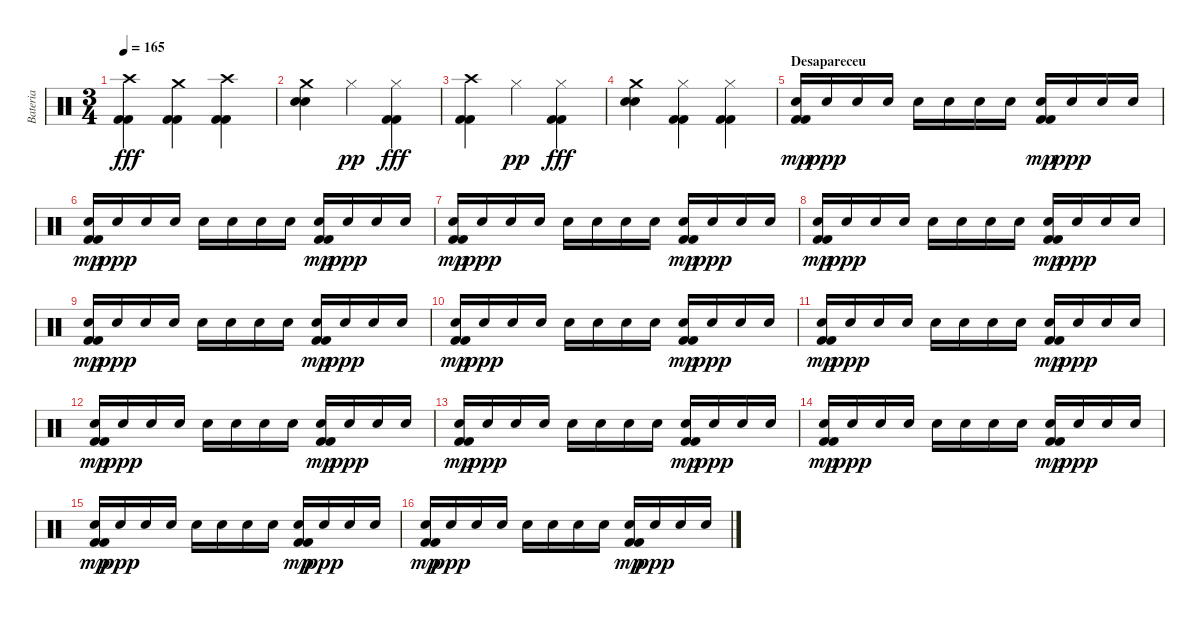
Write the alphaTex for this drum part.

\track ("Bateria" "Bateria") {instrument percussion}
\staff {score}
\articulation defaults
\ts (3 4)
\tempo 165
\clef neutral
\ks c
("Crash high (hit)" "Kick (hit) 2" "Kick (hit) 2").4{dy fff} ("Crash medium (hit)" "Kick (hit) 2" "Kick (hit) 2").4 ("Crash high (hit)" "Kick (hit) 2" "Kick (hit) 2").4 |
("Crash medium (hit)" "Snare (hit) 2" "Electric Snare (hit)").4 "Hi-Hat (closed)".4{dy pp} ("Hi-Hat (closed)" "Kick (hit) 2" "Kick (hit) 2").4{dy fff} |
("Crash high (hit)" "Kick (hit) 2" "Kick (hit) 2").4 "Hi-Hat (closed)".4{dy pp} ("Hi-Hat (closed)" "Kick (hit) 2" "Kick (hit) 2").4{dy fff} |
("Crash medium (hit)" "Electric Snare (hit)" "Snare (hit) 2").4 ("Hi-Hat (closed)" "Kick (hit) 2" "Kick (hit) 2").4 ("Hi-Hat (closed)" "Kick (hit) 2" "Kick (hit) 2").4 |
\section ("" "Desapareceu")
("Electric Snare (hit)" "Kick (hit) 2" "Kick (hit) 2").16{dy mp volume 9} "Electric Snare (hit)".16{dy ppp} "Electric Snare (hit)".16 "Electric Snare (hit)".16 "Electric Snare (hit)".16 "Electric Snare (hit)".16 "Electric Snare (hit)".16 "Electric Snare (hit)".16 ("Electric Snare (hit)" "Kick (hit) 2" "Kick (hit) 2").16{dy mp} "Electric Snare (hit)".16{dy ppp} "Electric Snare (hit)".16 "Electric Snare (hit)".16 |
("Electric Snare (hit)" "Kick (hit) 2" "Kick (hit) 2").16{dy mp} "Electric Snare (hit)".16{dy ppp} "Electric Snare (hit)".16 "Electric Snare (hit)".16 "Electric Snare (hit)".16 "Electric Snare (hit)".16 "Electric Snare (hit)".16 "Electric Snare (hit)".16 ("Electric Snare (hit)" "Kick (hit) 2" "Kick (hit) 2").16{dy mp} "Electric Snare (hit)".16{dy ppp} "Electric Snare (hit)".16 "Electric Snare (hit)".16 |
("Electric Snare (hit)" "Kick (hit) 2" "Kick (hit) 2").16{dy mp} "Electric Snare (hit)".16{dy ppp} "Electric Snare (hit)".16 "Electric Snare (hit)".16 "Electric Snare (hit)".16 "Electric Snare (hit)".16 "Electric Snare (hit)".16 "Electric Snare (hit)".16 ("Electric Snare (hit)" "Kick (hit) 2" "Kick (hit) 2").16{dy mp} "Electric Snare (hit)".16{dy ppp} "Electric Snare (hit)".16 "Electric Snare (hit)".16 |
("Electric Snare (hit)" "Kick (hit) 2" "Kick (hit) 2").16{dy mp} "Electric Snare (hit)".16{dy ppp} "Electric Snare (hit)".16 "Electric Snare (hit)".16 "Electric Snare (hit)".16 "Electric Snare (hit)".16 "Electric Snare (hit)".16 "Electric Snare (hit)".16 ("Electric Snare (hit)" "Kick (hit) 2" "Kick (hit) 2").16{dy mp} "Electric Snare (hit)".16{dy ppp} "Electric Snare (hit)".16 "Electric Snare (hit)".16 |
("Electric Snare (hit)" "Kick (hit) 2" "Kick (hit) 2").16{dy mp} "Electric Snare (hit)".16{dy ppp} "Electric Snare (hit)".16 "Electric Snare (hit)".16 "Electric Snare (hit)".16 "Electric Snare (hit)".16 "Electric Snare (hit)".16 "Electric Snare (hit)".16 ("Electric Snare (hit)" "Kick (hit) 2" "Kick (hit) 2").16{dy mp} "Electric Snare (hit)".16{dy ppp} "Electric Snare (hit)".16 "Electric Snare (hit)".16 |
("Electric Snare (hit)" "Kick (hit) 2" "Kick (hit) 2").16{dy mp} "Electric Snare (hit)".16{dy ppp} "Electric Snare (hit)".16 "Electric Snare (hit)".16 "Electric Snare (hit)".16 "Electric Snare (hit)".16 "Electric Snare (hit)".16 "Electric Snare (hit)".16 ("Electric Snare (hit)" "Kick (hit) 2" "Kick (hit) 2").16{dy mp} "Electric Snare (hit)".16{dy ppp} "Electric Snare (hit)".16 "Electric Snare (hit)".16 |
("Electric Snare (hit)" "Kick (hit) 2" "Kick (hit) 2").16{dy mp} "Electric Snare (hit)".16{dy ppp} "Electric Snare (hit)".16 "Electric Snare (hit)".16 "Electric Snare (hit)".16 "Electric Snare (hit)".16 "Electric Snare (hit)".16 "Electric Snare (hit)".16 ("Electric Snare (hit)" "Kick (hit) 2" "Kick (hit) 2").16{dy mp} "Electric Snare (hit)".16{dy ppp} "Electric Snare (hit)".16 "Electric Snare (hit)".16 |
("Electric Snare (hit)" "Kick (hit) 2" "Kick (hit) 2").16{dy mp} "Electric Snare (hit)".16{dy ppp} "Electric Snare (hit)".16 "Electric Snare (hit)".16 "Electric Snare (hit)".16 "Electric Snare (hit)".16 "Electric Snare (hit)".16 "Electric Snare (hit)".16 ("Electric Snare (hit)" "Kick (hit) 2" "Kick (hit) 2").16{dy mp} "Electric Snare (hit)".16{dy ppp} "Electric Snare (hit)".16 "Electric Snare (hit)".16 |
("Electric Snare (hit)" "Kick (hit) 2" "Kick (hit) 2").16{dy mp} "Electric Snare (hit)".16{dy ppp} "Electric Snare (hit)".16 "Electric Snare (hit)".16 "Electric Snare (hit)".16 "Electric Snare (hit)".16 "Electric Snare (hit)".16 "Electric Snare (hit)".16 ("Electric Snare (hit)" "Kick (hit) 2" "Kick (hit) 2").16{dy mp} "Electric Snare (hit)".16{dy ppp} "Electric Snare (hit)".16 "Electric Snare (hit)".16 |
("Electric Snare (hit)" "Kick (hit) 2" "Kick (hit) 2").16{dy mp} "Electric Snare (hit)".16{dy ppp} "Electric Snare (hit)".16 "Electric Snare (hit)".16 "Electric Snare (hit)".16 "Electric Snare (hit)".16 "Electric Snare (hit)".16 "Electric Snare (hit)".16 ("Electric Snare (hit)" "Kick (hit) 2" "Kick (hit) 2").16{dy mp} "Electric Snare (hit)".16{dy ppp} "Electric Snare (hit)".16 "Electric Snare (hit)".16 |
("Electric Snare (hit)" "Kick (hit) 2" "Kick (hit) 2").16{dy mp} "Electric Snare (hit)".16{dy ppp} "Electric Snare (hit)".16 "Electric Snare (hit)".16 "Electric Snare (hit)".16 "Electric Snare (hit)".16 "Electric Snare (hit)".16 "Electric Snare (hit)".16 ("Electric Snare (hit)" "Kick (hit) 2" "Kick (hit) 2").16{dy mp} "Electric Snare (hit)".16{dy ppp} "Electric Snare (hit)".16 "Electric Snare (hit)".16 |
("Electric Snare (hit)" "Kick (hit) 2" "Kick (hit) 2").16{dy mp} "Electric Snare (hit)".16{dy ppp} "Electric Snare (hit)".16 "Electric Snare (hit)".16 "Electric Snare (hit)".16 "Electric Snare (hit)".16 "Electric Snare (hit)".16 "Electric Snare (hit)".16 ("Electric Snare (hit)" "Kick (hit) 2" "Kick (hit) 2").16{dy mp} "Electric Snare (hit)".16{dy ppp} "Electric Snare (hit)".16 "Electric Snare (hit)".16
